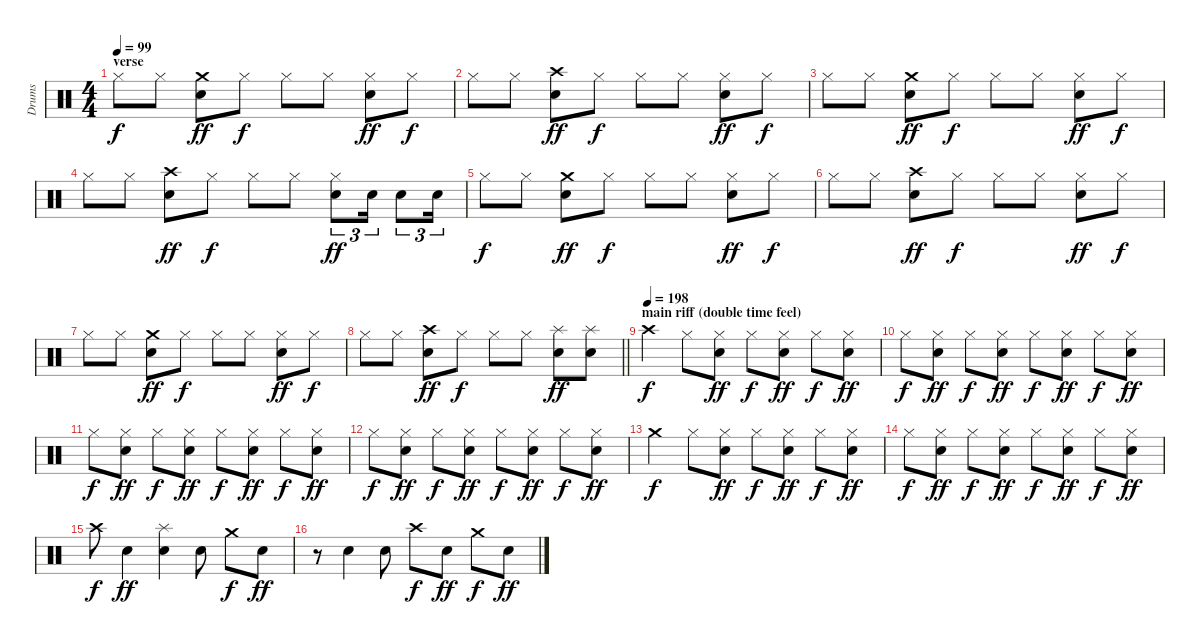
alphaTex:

\track ("Drums" "Drums") {instrument percussion}
\staff {score}
\articulation defaults
\ts (4 4)
\section ("" "verse")
\tempo 99
\clef neutral
\ks c "Hi-Hat (closed)".8{dy f} "Hi-Hat (closed)".8
("Crash medium (hit)" "Snare (hit) 2").8{dy ff} "Hi-Hat (closed)".8{dy f} "Hi-Hat (closed)".8 "Hi-Hat (closed)".8 ("Hi-Hat (closed)" "Snare (hit) 2").8{dy ff} "Hi-Hat (closed)".8{dy f} |
"Hi-Hat (closed)".8 "Hi-Hat (closed)".8 ("Crash high (hit)" "Snare (hit) 2").8{dy ff} "Hi-Hat (closed)".8{dy f} "Hi-Hat (closed)".8 "Hi-Hat (closed)".8 ("Hi-Hat (closed)" "Snare (hit) 2").8{dy ff} "Hi-Hat (closed)".8{dy f} |
"Hi-Hat (closed)".8 "Hi-Hat (closed)".8 ("Crash medium (hit)" "Snare (hit) 2").8{dy ff} "Hi-Hat (closed)".8{dy f} "Hi-Hat (closed)".8 "Hi-Hat (closed)".8 ("Hi-Hat (closed)" "Snare (hit) 2").8{dy ff} "Hi-Hat (closed)".8{dy f} |
"Hi-Hat (closed)".8 "Hi-Hat (closed)".8 ("Crash high (hit)" "Snare (hit) 2").8{dy ff} "Hi-Hat (closed)".8{dy f} "Hi-Hat (closed)".8 "Hi-Hat (closed)".8 ("Hi-Hat (closed)" "Snare (hit) 2").8{tu (3 2) dy ff} "Snare (hit) 2".16{tu (3 2)} "Snare (hit) 2".8{tu (3 2)} "Snare (hit) 2".16{tu (3 2)} |
"Hi-Hat (closed)".8{dy f} "Hi-Hat (closed)".8 ("Crash medium (hit)" "Snare (hit) 2").8{dy ff} "Hi-Hat (closed)".8{dy f} "Hi-Hat (closed)".8 "Hi-Hat (closed)".8 ("Hi-Hat (closed)" "Snare (hit) 2").8{dy ff} "Hi-Hat (closed)".8{dy f} |
"Hi-Hat (closed)".8 "Hi-Hat (closed)".8 ("Crash high (hit)" "Snare (hit) 2").8{dy ff} "Hi-Hat (closed)".8{dy f} "Hi-Hat (closed)".8 "Hi-Hat (closed)".8 ("Hi-Hat (closed)" "Snare (hit) 2").8{dy ff} "Hi-Hat (closed)".8{dy f} |
"Hi-Hat (closed)".8 "Hi-Hat (closed)".8 ("Crash medium (hit)" "Snare (hit) 2").8{dy ff} "Hi-Hat (closed)".8{dy f} "Hi-Hat (closed)".8 "Hi-Hat (closed)".8 ("Hi-Hat (closed)" "Snare (hit) 2").8{dy ff} "Hi-Hat (closed)".8{dy f} |
\barLineRight lightlight "Hi-Hat (closed)".8 "Hi-Hat (closed)".8
("Crash high (hit)" "Snare (hit) 2").8{dy ff} "Hi-Hat (closed)".8{dy f} "Hi-Hat (closed)".8 "Hi-Hat (closed)".8 ("Splash (hit)" "Snare (hit) 2").8{dy ff} ("Splash (hit)" "Snare (hit) 2").8 |
\section ("" "main riff (double time feel)")
\tempo (198)
"Crash high (hit)".4{dy f} "Hi-Hat (closed)".8 ("Hi-Hat (closed)" "Snare (hit) 2").8{dy ff} "Hi-Hat (closed)".8{dy f} ("Hi-Hat (closed)" "Snare (hit) 2").8{dy ff} "Hi-Hat (closed)".8{dy f} ("Hi-Hat (closed)" "Snare (hit) 2").8{dy ff} |
"Hi-Hat (closed)".8{dy f} ("Hi-Hat (closed)" "Snare (hit) 2").8{dy ff} "Hi-Hat (closed)".8{dy f} ("Hi-Hat (closed)" "Snare (hit) 2").8{dy ff} "Hi-Hat (closed)".8{dy f} ("Hi-Hat (closed)" "Snare (hit) 2").8{dy ff} "Hi-Hat (closed)".8{dy f} ("Hi-Hat (closed)" "Snare (hit) 2").8{dy ff} |
"Hi-Hat (closed)".8{dy f} ("Hi-Hat (closed)" "Snare (hit) 2").8{dy ff} "Hi-Hat (closed)".8{dy f} ("Hi-Hat (closed)" "Snare (hit) 2").8{dy ff} "Hi-Hat (closed)".8{dy f} ("Hi-Hat (closed)" "Snare (hit) 2").8{dy ff} "Hi-Hat (closed)".8{dy f} ("Hi-Hat (closed)" "Snare (hit) 2").8{dy ff} |
"Hi-Hat (closed)".8{dy f} ("Hi-Hat (closed)" "Snare (hit) 2").8{dy ff} "Hi-Hat (closed)".8{dy f} ("Hi-Hat (closed)" "Snare (hit) 2").8{dy ff} "Hi-Hat (closed)".8{dy f} ("Hi-Hat (closed)" "Snare (hit) 2").8{dy ff} "Hi-Hat (closed)".8{dy f} ("Hi-Hat (closed)" "Snare (hit) 2").8{dy ff} |
"Crash medium (hit)".4{dy f} "Hi-Hat (closed)".8 ("Hi-Hat (closed)" "Snare (hit) 2").8{dy ff} "Hi-Hat (closed)".8{dy f} ("Hi-Hat (closed)" "Snare (hit) 2").8{dy ff} "Hi-Hat (closed)".8{dy f} ("Hi-Hat (closed)" "Snare (hit) 2").8{dy ff} |
"Hi-Hat (closed)".8{dy f} ("Hi-Hat (closed)" "Snare (hit) 2").8{dy ff} "Hi-Hat (closed)".8{dy f} ("Hi-Hat (closed)" "Snare (hit) 2").8{dy ff} "Hi-Hat (closed)".8{dy f} ("Hi-Hat (closed)" "Snare (hit) 2").8{dy ff} "Hi-Hat (closed)".8{dy f} ("Hi-Hat (closed)" "Snare (hit) 2").8{dy ff} |
"Crash high (hit)".8{dy f} "Snare (hit) 2".4{dy ff} ("Splash (hit)" "Snare (hit) 2").4 "Snare (hit) 2".8 "Crash medium (hit)".8{dy f} "Snare (hit) 2".8{dy ff} |
r.8 "Snare (hit) 2".4 "Snare (hit) 2".8 "Crash high (hit)".8{dy f} "Snare (hit) 2".8{dy ff} "Crash medium (hit)".8{dy f} "Snare (hit) 2".8{dy ff}
